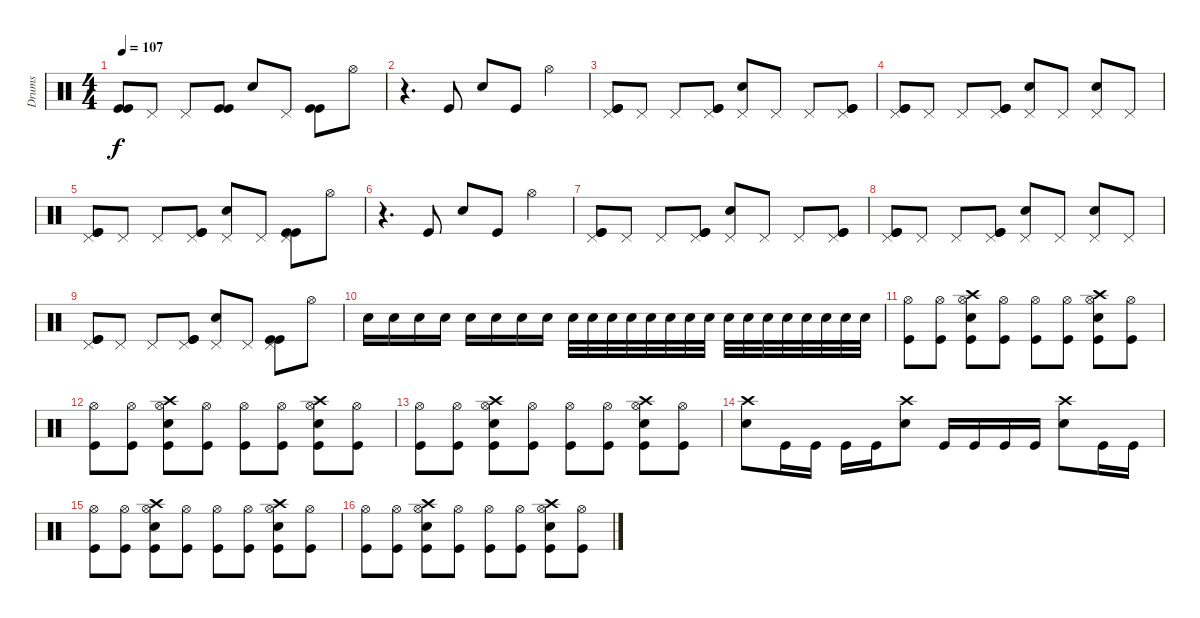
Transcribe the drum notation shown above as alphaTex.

\track ("Drums" "Drums") {instrument percussion}
\staff
\articulation defaults
\ts (4 4)
\tempo 107
\clef neutral
\ks c
("Kick (hit)" "Kick (hit)").8{dy f} "Pedal Hi-Hat (hit)".8 "Pedal Hi-Hat (hit)".8 ("Kick (hit)" "Kick (hit)").8 "Electric Snare (hit)".8 "Pedal Hi-Hat (hit)".8 ("Kick (hit)" "Kick (hit)").8 "Hi-Hat (open)".8 |
r.4{d} "Kick (hit)".8 "Electric Snare (hit)".8 "Kick (hit)".8 "Hi-Hat (open)".4 |
("Pedal Hi-Hat (hit)" "Kick (hit)" "Kick (hit)").8{volume 13} "Pedal Hi-Hat (hit)".8 "Pedal Hi-Hat (hit)".8 ("Pedal Hi-Hat (hit)" "Kick (hit)" "Kick (hit)").8 ("Pedal Hi-Hat (hit)" "Electric Snare (hit)").8 "Pedal Hi-Hat (hit)".8 "Pedal Hi-Hat (hit)".8 ("Pedal Hi-Hat (hit)" "Kick (hit)" "Kick (hit)").8 |
("Pedal Hi-Hat (hit)" "Kick (hit)" "Kick (hit)").8 "Pedal Hi-Hat (hit)".8 "Pedal Hi-Hat (hit)".8 ("Pedal Hi-Hat (hit)" "Kick (hit)" "Kick (hit)").8 ("Pedal Hi-Hat (hit)" "Electric Snare (hit)").8 "Pedal Hi-Hat (hit)".8 ("Pedal Hi-Hat (hit)" "Electric Snare (hit)").8 "Pedal Hi-Hat (hit)".8 |
("Pedal Hi-Hat (hit)" "Kick (hit)" "Kick (hit)").8 "Pedal Hi-Hat (hit)".8 "Pedal Hi-Hat (hit)".8 ("Pedal Hi-Hat (hit)" "Kick (hit)" "Kick (hit)").8 ("Pedal Hi-Hat (hit)" "Electric Snare (hit)").8 "Pedal Hi-Hat (hit)".8 ("Pedal Hi-Hat (hit)" "Kick (hit)" "Kick (hit)").8 "Hi-Hat (open)".8 |
r.4{d} "Kick (hit)".8 "Electric Snare (hit)".8 "Kick (hit)".8 "Hi-Hat (open)".4 |
("Pedal Hi-Hat (hit)" "Kick (hit)" "Kick (hit)").8{volume 13} "Pedal Hi-Hat (hit)".8 "Pedal Hi-Hat (hit)".8 ("Pedal Hi-Hat (hit)" "Kick (hit)" "Kick (hit)").8 ("Pedal Hi-Hat (hit)" "Electric Snare (hit)").8 "Pedal Hi-Hat (hit)".8 "Pedal Hi-Hat (hit)".8 ("Pedal Hi-Hat (hit)" "Kick (hit)" "Kick (hit)").8 |
("Pedal Hi-Hat (hit)" "Kick (hit)" "Kick (hit)").8 "Pedal Hi-Hat (hit)".8 "Pedal Hi-Hat (hit)".8 ("Pedal Hi-Hat (hit)" "Kick (hit)" "Kick (hit)").8 ("Pedal Hi-Hat (hit)" "Electric Snare (hit)").8 "Pedal Hi-Hat (hit)".8 ("Pedal Hi-Hat (hit)" "Electric Snare (hit)").8 "Pedal Hi-Hat (hit)".8 |
("Pedal Hi-Hat (hit)" "Kick (hit)" "Kick (hit)").8 "Pedal Hi-Hat (hit)".8 "Pedal Hi-Hat (hit)".8 ("Pedal Hi-Hat (hit)" "Kick (hit)" "Kick (hit)").8 ("Pedal Hi-Hat (hit)" "Electric Snare (hit)").8 "Pedal Hi-Hat (hit)".8 ("Pedal Hi-Hat (hit)" "Kick (hit)" "Kick (hit)").8 "Hi-Hat (open)".8 |
"Electric Snare (hit)".16{volume 0} "Electric Snare (hit)".16{volume 14} "Electric Snare (hit)".16 "Electric Snare (hit)".16 "Electric Snare (hit)".16 "Electric Snare (hit)".16 "Electric Snare (hit)".16 "Electric Snare (hit)".16 "Electric Snare (hit)".32 "Electric Snare (hit)".32 "Electric Snare (hit)".32 "Electric Snare (hit)".32 "Electric Snare (hit)".32 "Electric Snare (hit)".32 "Electric Snare (hit)".32 "Electric Snare (hit)".32 "Electric Snare (hit)".32 "Electric Snare (hit)".32 "Electric Snare (hit)".32 "Electric Snare (hit)".32 "Electric Snare (hit)".32 "Electric Snare (hit)".32 "Electric Snare (hit)".32 "Electric Snare (hit)".32 |
("Hi-Hat (open)" "Kick (hit)").8{volume 11} ("Hi-Hat (open)" "Kick (hit)").8 ("Crash high (hit)" "Hi-Hat (open)" "Electric Snare (hit)" "Kick (hit)").8 ("Hi-Hat (open)" "Kick (hit)").8 ("Hi-Hat (open)" "Kick (hit)").8 ("Hi-Hat (open)" "Kick (hit)").8 ("Crash high (hit)" "Hi-Hat (open)" "Electric Snare (hit)" "Kick (hit)").8 ("Hi-Hat (open)" "Kick (hit)").8 |
("Hi-Hat (open)" "Kick (hit)").8 ("Hi-Hat (open)" "Kick (hit)").8 ("Crash high (hit)" "Hi-Hat (open)" "Electric Snare (hit)" "Kick (hit)").8 ("Hi-Hat (open)" "Kick (hit)").8 ("Hi-Hat (open)" "Kick (hit)").8 ("Hi-Hat (open)" "Kick (hit)").8 ("Crash high (hit)" "Hi-Hat (open)" "Electric Snare (hit)" "Kick (hit)").8 ("Hi-Hat (open)" "Kick (hit)").8 |
("Hi-Hat (open)" "Kick (hit)").8 ("Hi-Hat (open)" "Kick (hit)").8 ("Crash high (hit)" "Hi-Hat (open)" "Electric Snare (hit)" "Kick (hit)").8 ("Hi-Hat (open)" "Kick (hit)").8 ("Hi-Hat (open)" "Kick (hit)").8 ("Hi-Hat (open)" "Kick (hit)").8 ("Crash high (hit)" "Hi-Hat (open)" "Electric Snare (hit)" "Kick (hit)").8 ("Hi-Hat (open)" "Kick (hit)").8 |
("Crash high (hit)" "Electric Snare (hit)").8 "Kick (hit)".16 "Kick (hit)".16 "Kick (hit)".16 "Kick (hit)".16 ("Crash high (hit)" "Electric Snare (hit)").8 "Kick (hit)".16 "Kick (hit)".16 "Kick (hit)".16 "Kick (hit)".16 ("Crash high (hit)" "Electric Snare (hit)").8 "Kick (hit)".16 "Kick (hit)".16 |
("Hi-Hat (open)" "Kick (hit)").8 ("Hi-Hat (open)" "Kick (hit)").8 ("Crash high (hit)" "Hi-Hat (open)" "Electric Snare (hit)" "Kick (hit)").8 ("Hi-Hat (open)" "Kick (hit)").8 ("Hi-Hat (open)" "Kick (hit)").8 ("Hi-Hat (open)" "Kick (hit)").8 ("Crash high (hit)" "Hi-Hat (open)" "Electric Snare (hit)" "Kick (hit)").8 ("Hi-Hat (open)" "Kick (hit)").8 |
("Hi-Hat (open)" "Kick (hit)").8 ("Hi-Hat (open)" "Kick (hit)").8 ("Crash high (hit)" "Hi-Hat (open)" "Electric Snare (hit)" "Kick (hit)").8 ("Hi-Hat (open)" "Kick (hit)").8 ("Hi-Hat (open)" "Kick (hit)").8 ("Hi-Hat (open)" "Kick (hit)").8 ("Crash high (hit)" "Hi-Hat (open)" "Electric Snare (hit)" "Kick (hit)").8 ("Hi-Hat (open)" "Kick (hit)").8
